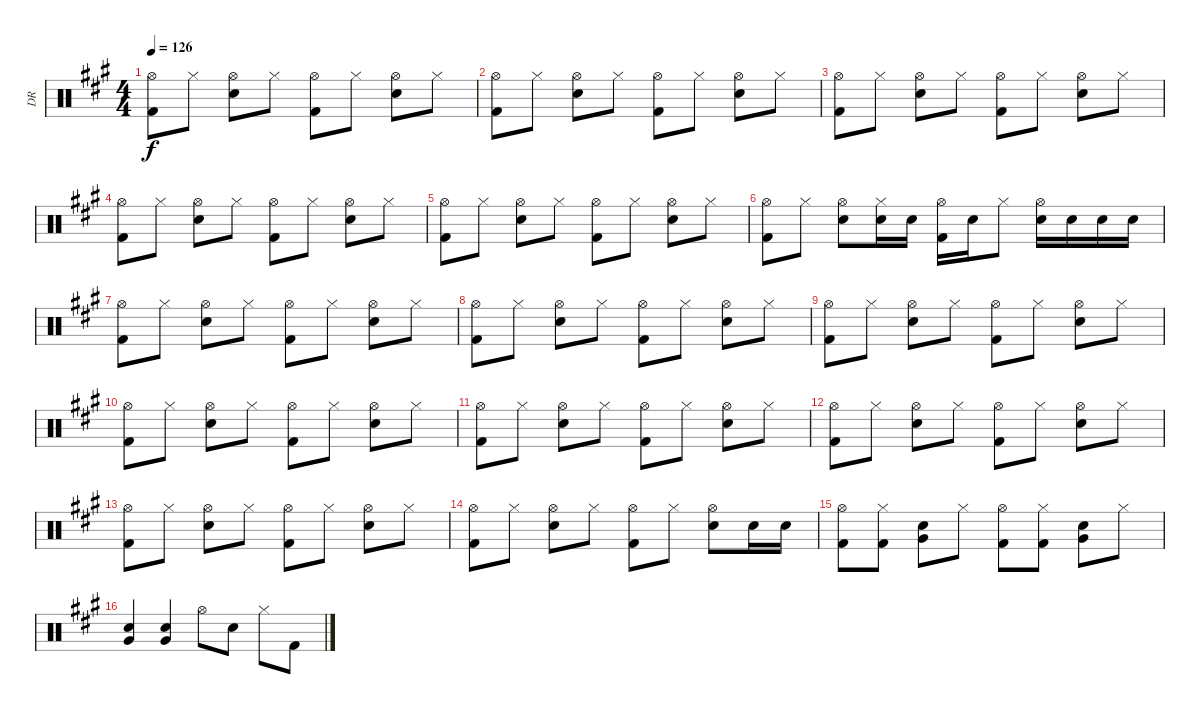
\track ("DR" "DR") {instrument percussion}
\staff {score}
\articulation defaults
\ts (4 4)
\tempo 126
\clef neutral
\ks f#minor
("Hi-Hat (open)" "Kick (hit) 2").8{dy f} "Hi-Hat (closed)".8 ("Hi-Hat (open)" "Electric Snare (hit)").8 "Hi-Hat (closed)".8 ("Hi-Hat (open)" "Kick (hit) 2").8 "Hi-Hat (closed)".8 ("Hi-Hat (open)" "Electric Snare (hit)").8 "Hi-Hat (closed)".8 |
("Hi-Hat (open)" "Kick (hit) 2").8 "Hi-Hat (closed)".8 ("Hi-Hat (open)" "Electric Snare (hit)").8 "Hi-Hat (closed)".8 ("Hi-Hat (open)" "Kick (hit) 2").8 "Hi-Hat (closed)".8 ("Hi-Hat (open)" "Electric Snare (hit)").8 "Hi-Hat (closed)".8 |
("Hi-Hat (open)" "Kick (hit) 2").8 "Hi-Hat (closed)".8 ("Hi-Hat (open)" "Electric Snare (hit)").8 "Hi-Hat (closed)".8 ("Hi-Hat (open)" "Kick (hit) 2").8 "Hi-Hat (closed)".8 ("Hi-Hat (open)" "Electric Snare (hit)").8 "Hi-Hat (closed)".8 |
("Hi-Hat (open)" "Kick (hit) 2").8 "Hi-Hat (closed)".8 ("Hi-Hat (open)" "Electric Snare (hit)").8 "Hi-Hat (closed)".8 ("Hi-Hat (open)" "Kick (hit) 2").8 "Hi-Hat (closed)".8 ("Hi-Hat (open)" "Electric Snare (hit)").8 "Hi-Hat (closed)".8 |
("Hi-Hat (open)" "Kick (hit) 2").8 "Hi-Hat (closed)".8 ("Hi-Hat (open)" "Electric Snare (hit)").8 "Hi-Hat (closed)".8 ("Hi-Hat (open)" "Kick (hit) 2").8 "Hi-Hat (closed)".8 ("Hi-Hat (open)" "Electric Snare (hit)").8 "Hi-Hat (closed)".8 |
("Hi-Hat (open)" "Kick (hit) 2").8 "Hi-Hat (closed)".8 ("Hi-Hat (open)" "Electric Snare (hit)").8 ("Hi-Hat (closed)" "Electric Snare (hit)").16 "Electric Snare (hit)".16 ("Hi-Hat (open)" "Kick (hit) 2").16 "Electric Snare (hit)".16 "Hi-Hat (closed)".8 ("Hi-Hat (open)" "Electric Snare (hit)").16 "Electric Snare (hit)".16 "Electric Snare (hit)".16 "Electric Snare (hit)".16 |
("Hi-Hat (open)" "Kick (hit) 2").8 "Hi-Hat (closed)".8 ("Hi-Hat (open)" "Electric Snare (hit)").8 "Hi-Hat (closed)".8 ("Hi-Hat (open)" "Kick (hit) 2").8 "Hi-Hat (closed)".8 ("Hi-Hat (open)" "Electric Snare (hit)").8 "Hi-Hat (closed)".8 |
("Hi-Hat (open)" "Kick (hit) 2").8 "Hi-Hat (closed)".8 ("Hi-Hat (open)" "Electric Snare (hit)").8 "Hi-Hat (closed)".8 ("Hi-Hat (open)" "Kick (hit) 2").8 "Hi-Hat (closed)".8 ("Hi-Hat (open)" "Electric Snare (hit)").8 "Hi-Hat (closed)".8 |
("Hi-Hat (open)" "Kick (hit) 2").8 "Hi-Hat (closed)".8 ("Hi-Hat (open)" "Electric Snare (hit)").8 "Hi-Hat (closed)".8 ("Hi-Hat (open)" "Kick (hit) 2").8 "Hi-Hat (closed)".8 ("Hi-Hat (open)" "Electric Snare (hit)").8 "Hi-Hat (closed)".8 |
("Hi-Hat (open)" "Kick (hit) 2").8 "Hi-Hat (closed)".8 ("Hi-Hat (open)" "Electric Snare (hit)").8 "Hi-Hat (closed)".8 ("Hi-Hat (open)" "Kick (hit) 2").8 "Hi-Hat (closed)".8 ("Hi-Hat (open)" "Electric Snare (hit)").8 "Hi-Hat (closed)".8 |
("Hi-Hat (open)" "Kick (hit) 2").8 "Hi-Hat (closed)".8 ("Hi-Hat (open)" "Electric Snare (hit)").8 "Hi-Hat (closed)".8 ("Hi-Hat (open)" "Kick (hit) 2").8 "Hi-Hat (closed)".8 ("Hi-Hat (open)" "Electric Snare (hit)").8 "Hi-Hat (closed)".8 |
("Hi-Hat (open)" "Kick (hit) 2").8 "Hi-Hat (closed)".8 ("Hi-Hat (open)" "Electric Snare (hit)").8 "Hi-Hat (closed)".8 ("Hi-Hat (open)" "Kick (hit) 2").8 "Hi-Hat (closed)".8 ("Hi-Hat (open)" "Electric Snare (hit)").8 "Hi-Hat (closed)".8 |
("Hi-Hat (open)" "Kick (hit) 2").8 "Hi-Hat (closed)".8 ("Hi-Hat (open)" "Electric Snare (hit)").8 "Hi-Hat (closed)".8 ("Hi-Hat (open)" "Kick (hit) 2").8 "Hi-Hat (closed)".8 ("Hi-Hat (open)" "Electric Snare (hit)").8 "Hi-Hat (closed)".8 |
("Hi-Hat (open)" "Kick (hit) 2").8 "Hi-Hat (closed)".8 ("Hi-Hat (open)" "Electric Snare (hit)").8 "Hi-Hat (closed)".8 ("Hi-Hat (open)" "Kick (hit) 2").8 "Hi-Hat (closed)".8 ("Hi-Hat (open)" "Electric Snare (hit)").8 "Electric Snare (hit)".16 "Electric Snare (hit)".16 |
("Hi-Hat (open)" "Kick (hit) 2").8 ("Hi-Hat (closed)" "Kick (hit) 2").8 ("Very Low Tom (hit)" "Electric Snare (hit)").8 "Hi-Hat (closed)".8 ("Hi-Hat (open)" "Kick (hit) 2").8 ("Hi-Hat (closed)" "Kick (hit) 2").8 ("Very Low Tom (hit)" "Electric Snare (hit)").8 "Hi-Hat (closed)".8 |
("Very Low Tom (hit)" "Electric Snare (hit)").4 ("Very Low Tom (hit)" "Electric Snare (hit)").4 "Hi-Hat (open)".8 "Electric Snare (hit)".8 "Hi-Hat (closed)".8 "Kick (hit) 2".8
